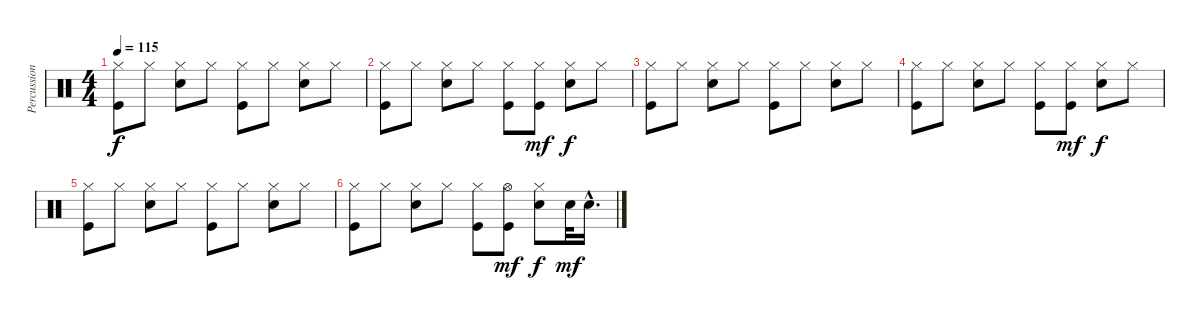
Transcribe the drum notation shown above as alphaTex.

\track ("Percussion" "Percussion") {instrument percussion}
\staff {score}
\articulation defaults
\ts (4 4)
\tempo 115
\clef neutral
\ks c
("Hi-Hat (closed)" "Kick (hit)").8{dy f} "Hi-Hat (closed)".8 ("Hi-Hat (closed)" "Snare (hit) 2").8 "Hi-Hat (closed)".8 ("Hi-Hat (closed)" "Kick (hit)").8 "Hi-Hat (closed)".8 ("Hi-Hat (closed)" "Snare (hit) 2").8 "Hi-Hat (closed)".8 |
("Hi-Hat (closed)" "Kick (hit)").8 "Hi-Hat (closed)".8 ("Hi-Hat (closed)" "Snare (hit) 2").8 "Hi-Hat (closed)".8 ("Hi-Hat (closed)" "Kick (hit)").8 ("Hi-Hat (closed)" "Kick (hit)").8{dy mf} ("Hi-Hat (closed)" "Snare (hit) 2").8{dy f} "Hi-Hat (closed)".8 |
("Hi-Hat (closed)" "Kick (hit)").8 "Hi-Hat (closed)".8 ("Hi-Hat (closed)" "Snare (hit) 2").8 "Hi-Hat (closed)".8 ("Hi-Hat (closed)" "Kick (hit)").8 "Hi-Hat (closed)".8 ("Hi-Hat (closed)" "Snare (hit) 2").8 "Hi-Hat (closed)".8 |
("Hi-Hat (closed)" "Kick (hit)").8 "Hi-Hat (closed)".8 ("Hi-Hat (closed)" "Snare (hit) 2").8 "Hi-Hat (closed)".8 ("Hi-Hat (closed)" "Kick (hit)").8 ("Hi-Hat (closed)" "Kick (hit)").8{dy mf} ("Hi-Hat (closed)" "Snare (hit) 2").8{dy f} "Hi-Hat (closed)".8 |
("Hi-Hat (closed)" "Kick (hit)").8 "Hi-Hat (closed)".8 ("Hi-Hat (closed)" "Snare (hit) 2").8 "Hi-Hat (closed)".8 ("Hi-Hat (closed)" "Kick (hit)").8 "Hi-Hat (closed)".8 ("Hi-Hat (closed)" "Snare (hit) 2").8 "Hi-Hat (closed)".8 |
("Hi-Hat (closed)" "Kick (hit)").8 "Hi-Hat (closed)".8 ("Hi-Hat (closed)" "Snare (hit) 2").8 "Hi-Hat (closed)".8 ("Hi-Hat (closed)" "Kick (hit)").8 ("Hi-Hat (open)" "Kick (hit)").8{dy mf} ("Hi-Hat (closed)" "Snare (hit) 2").8{dy f} "Snare (hit) 2".32{dy mf} "Snare (hit) 2"{hac}.16{d}
